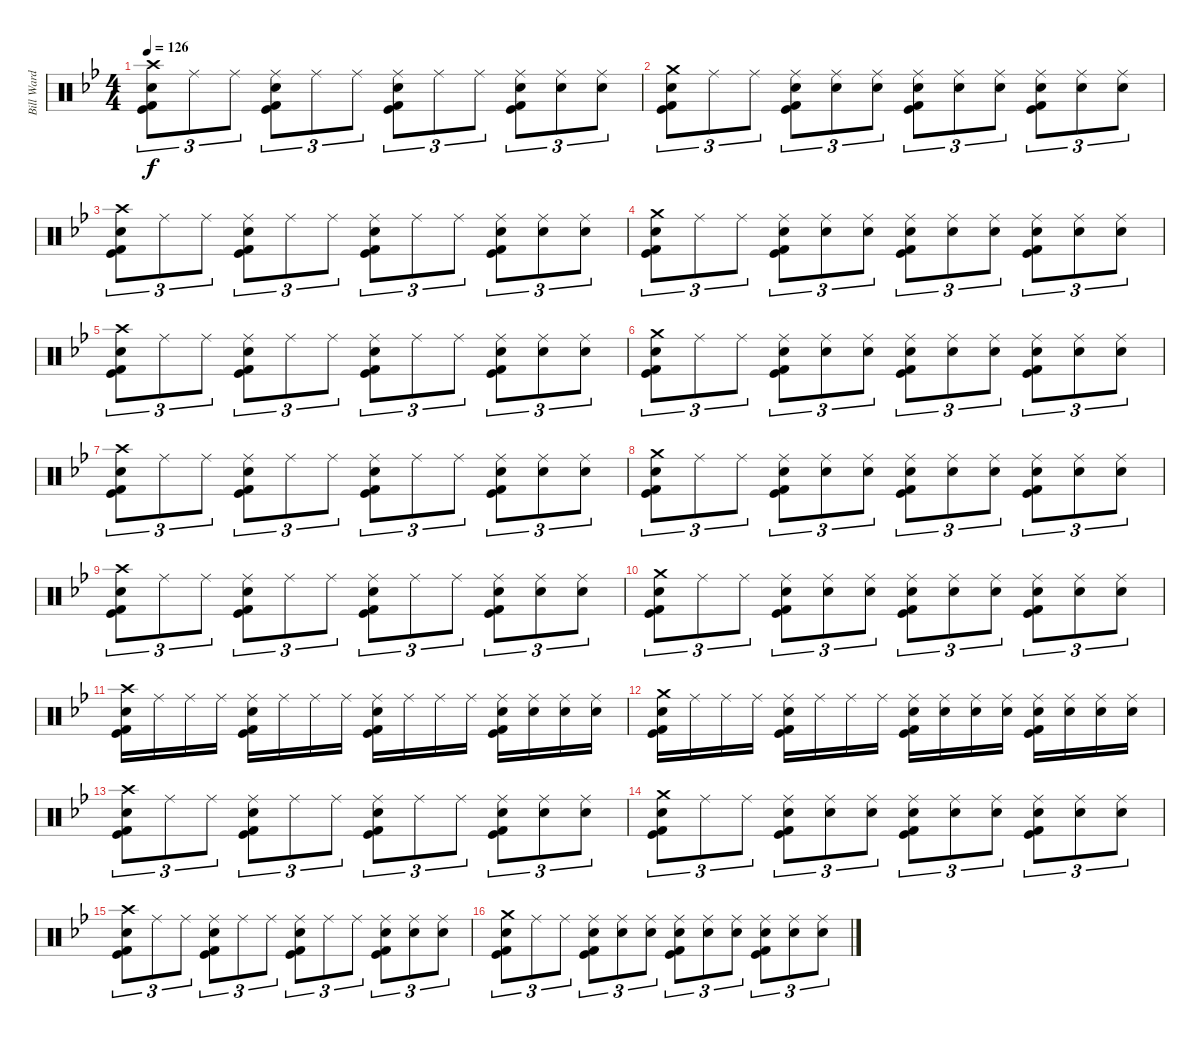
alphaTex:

\track ("Bill Ward" "Bill Ward") {instrument percussion}
\staff {score}
\articulation defaults
\ts (4 4)
\tempo 126
\clef neutral
\ks bb
("Crash high (hit)" "Snare (hit) 2" "Kick (hit) 2" "Kick (hit)").8{tu (3 2) dy f} "Ride (middle)".8{tu (3 2)} "Ride (middle)".8{tu (3 2)} ("Ride (middle)" "Snare (hit) 2" "Kick (hit) 2" "Kick (hit)").8{tu (3 2)} "Ride (middle)".8{tu (3 2)} "Ride (middle)".8{tu (3 2)} ("Ride (middle)" "Snare (hit) 2" "Kick (hit) 2" "Kick (hit)").8{tu (3 2)} "Ride (middle)".8{tu (3 2)} "Ride (middle)".8{tu (3 2)} ("Ride (middle)" "Snare (hit) 2" "Kick (hit) 2" "Kick (hit)").8{tu (3 2)} ("Ride (middle)" "Snare (hit) 2").8{tu (3 2)} ("Ride (middle)" "Snare (hit) 2").8{tu (3 2)} |
("Crash medium (hit)" "Snare (hit) 2" "Kick (hit) 2" "Kick (hit)").8{tu (3 2)} "Ride (middle)".8{tu (3 2)} "Ride (middle)".8{tu (3 2)} ("Ride (middle)" "Snare (hit) 2" "Kick (hit) 2" "Kick (hit)").8{tu (3 2)} ("Ride (middle)" "Snare (hit) 2").8{tu (3 2)} ("Ride (middle)" "Snare (hit) 2").8{tu (3 2)} ("Ride (middle)" "Snare (hit) 2" "Kick (hit) 2" "Kick (hit)").8{tu (3 2)} ("Ride (middle)" "Snare (hit) 2").8{tu (3 2)} ("Ride (middle)" "Snare (hit) 2").8{tu (3 2)} ("Ride (middle)" "Snare (hit) 2" "Kick (hit) 2" "Kick (hit)").8{tu (3 2)} ("Ride (middle)" "Snare (hit) 2").8{tu (3 2)} ("Ride (middle)" "Snare (hit) 2").8{tu (3 2)} |
("Crash high (hit)" "Snare (hit) 2" "Kick (hit) 2" "Kick (hit)").8{tu (3 2)} "Ride (middle)".8{tu (3 2)} "Ride (middle)".8{tu (3 2)} ("Ride (middle)" "Snare (hit) 2" "Kick (hit) 2" "Kick (hit)").8{tu (3 2)} "Ride (middle)".8{tu (3 2)} "Ride (middle)".8{tu (3 2)} ("Ride (middle)" "Snare (hit) 2" "Kick (hit) 2" "Kick (hit)").8{tu (3 2)} "Ride (middle)".8{tu (3 2)} "Ride (middle)".8{tu (3 2)} ("Ride (middle)" "Snare (hit) 2" "Kick (hit) 2" "Kick (hit)").8{tu (3 2)} ("Ride (middle)" "Snare (hit) 2").8{tu (3 2)} ("Ride (middle)" "Snare (hit) 2").8{tu (3 2)} |
("Crash medium (hit)" "Snare (hit) 2" "Kick (hit) 2" "Kick (hit)").8{tu (3 2)} "Ride (middle)".8{tu (3 2)} "Ride (middle)".8{tu (3 2)} ("Ride (middle)" "Snare (hit) 2" "Kick (hit) 2" "Kick (hit)").8{tu (3 2)} ("Ride (middle)" "Snare (hit) 2").8{tu (3 2)} ("Ride (middle)" "Snare (hit) 2").8{tu (3 2)} ("Ride (middle)" "Snare (hit) 2" "Kick (hit) 2" "Kick (hit)").8{tu (3 2)} ("Ride (middle)" "Snare (hit) 2").8{tu (3 2)} ("Ride (middle)" "Snare (hit) 2").8{tu (3 2)} ("Ride (middle)" "Snare (hit) 2" "Kick (hit) 2" "Kick (hit)").8{tu (3 2)} ("Ride (middle)" "Snare (hit) 2").8{tu (3 2)} ("Ride (middle)" "Snare (hit) 2").8{tu (3 2)} |
("Crash high (hit)" "Snare (hit) 2" "Kick (hit) 2" "Kick (hit)").8{tu (3 2)} "Ride (middle)".8{tu (3 2)} "Ride (middle)".8{tu (3 2)} ("Ride (middle)" "Snare (hit) 2" "Kick (hit) 2" "Kick (hit)").8{tu (3 2)} "Ride (middle)".8{tu (3 2)} "Ride (middle)".8{tu (3 2)} ("Ride (middle)" "Snare (hit) 2" "Kick (hit) 2" "Kick (hit)").8{tu (3 2)} "Ride (middle)".8{tu (3 2)} "Ride (middle)".8{tu (3 2)} ("Ride (middle)" "Snare (hit) 2" "Kick (hit) 2" "Kick (hit)").8{tu (3 2)} ("Ride (middle)" "Snare (hit) 2").8{tu (3 2)} ("Ride (middle)" "Snare (hit) 2").8{tu (3 2)} |
("Crash medium (hit)" "Snare (hit) 2" "Kick (hit) 2" "Kick (hit)").8{tu (3 2)} "Ride (middle)".8{tu (3 2)} "Ride (middle)".8{tu (3 2)} ("Ride (middle)" "Snare (hit) 2" "Kick (hit) 2" "Kick (hit)").8{tu (3 2)} ("Ride (middle)" "Snare (hit) 2").8{tu (3 2)} ("Ride (middle)" "Snare (hit) 2").8{tu (3 2)} ("Ride (middle)" "Snare (hit) 2" "Kick (hit) 2" "Kick (hit)").8{tu (3 2)} ("Ride (middle)" "Snare (hit) 2").8{tu (3 2)} ("Ride (middle)" "Snare (hit) 2").8{tu (3 2)} ("Ride (middle)" "Snare (hit) 2" "Kick (hit) 2" "Kick (hit)").8{tu (3 2)} ("Ride (middle)" "Snare (hit) 2").8{tu (3 2)} ("Ride (middle)" "Snare (hit) 2").8{tu (3 2)} |
("Crash high (hit)" "Snare (hit) 2" "Kick (hit) 2" "Kick (hit)").8{tu (3 2)} "Ride (middle)".8{tu (3 2)} "Ride (middle)".8{tu (3 2)} ("Ride (middle)" "Snare (hit) 2" "Kick (hit) 2" "Kick (hit)").8{tu (3 2)} "Ride (middle)".8{tu (3 2)} "Ride (middle)".8{tu (3 2)} ("Ride (middle)" "Snare (hit) 2" "Kick (hit) 2" "Kick (hit)").8{tu (3 2)} "Ride (middle)".8{tu (3 2)} "Ride (middle)".8{tu (3 2)} ("Ride (middle)" "Snare (hit) 2" "Kick (hit) 2" "Kick (hit)").8{tu (3 2)} ("Ride (middle)" "Snare (hit) 2").8{tu (3 2)} ("Ride (middle)" "Snare (hit) 2").8{tu (3 2)} |
("Crash medium (hit)" "Snare (hit) 2" "Kick (hit) 2" "Kick (hit)").8{tu (3 2)} "Ride (middle)".8{tu (3 2)} "Ride (middle)".8{tu (3 2)} ("Ride (middle)" "Snare (hit) 2" "Kick (hit) 2" "Kick (hit)").8{tu (3 2)} ("Ride (middle)" "Snare (hit) 2").8{tu (3 2)} ("Ride (middle)" "Snare (hit) 2").8{tu (3 2)} ("Ride (middle)" "Snare (hit) 2" "Kick (hit) 2" "Kick (hit)").8{tu (3 2)} ("Ride (middle)" "Snare (hit) 2").8{tu (3 2)} ("Ride (middle)" "Snare (hit) 2").8{tu (3 2)} ("Ride (middle)" "Snare (hit) 2" "Kick (hit) 2" "Kick (hit)").8{tu (3 2)} ("Ride (middle)" "Snare (hit) 2").8{tu (3 2)} ("Ride (middle)" "Snare (hit) 2").8{tu (3 2)} |
("Crash high (hit)" "Snare (hit) 2" "Kick (hit) 2" "Kick (hit)").8{tu (3 2)} "Ride (middle)".8{tu (3 2)} "Ride (middle)".8{tu (3 2)} ("Ride (middle)" "Snare (hit) 2" "Kick (hit) 2" "Kick (hit)").8{tu (3 2)} "Ride (middle)".8{tu (3 2)} "Ride (middle)".8{tu (3 2)} ("Ride (middle)" "Snare (hit) 2" "Kick (hit) 2" "Kick (hit)").8{tu (3 2)} "Ride (middle)".8{tu (3 2)} "Ride (middle)".8{tu (3 2)} ("Ride (middle)" "Snare (hit) 2" "Kick (hit) 2" "Kick (hit)").8{tu (3 2)} ("Ride (middle)" "Snare (hit) 2").8{tu (3 2)} ("Ride (middle)" "Snare (hit) 2").8{tu (3 2)} |
("Crash medium (hit)" "Snare (hit) 2" "Kick (hit) 2" "Kick (hit)").8{tu (3 2)} "Ride (middle)".8{tu (3 2)} "Ride (middle)".8{tu (3 2)} ("Ride (middle)" "Snare (hit) 2" "Kick (hit) 2" "Kick (hit)").8{tu (3 2)} ("Ride (middle)" "Snare (hit) 2").8{tu (3 2)} ("Ride (middle)" "Snare (hit) 2").8{tu (3 2)} ("Ride (middle)" "Snare (hit) 2" "Kick (hit) 2" "Kick (hit)").8{tu (3 2)} ("Ride (middle)" "Snare (hit) 2").8{tu (3 2)} ("Ride (middle)" "Snare (hit) 2").8{tu (3 2)} ("Ride (middle)" "Snare (hit) 2" "Kick (hit) 2" "Kick (hit)").8{tu (3 2)} ("Ride (middle)" "Snare (hit) 2").8{tu (3 2)} ("Ride (middle)" "Snare (hit) 2").8{tu (3 2)} |
("Crash high (hit)" "Snare (hit) 2" "Kick (hit) 2" "Kick (hit)").16 "Ride (middle)".16 "Ride (middle)".16 "Ride (middle)".16 ("Ride (middle)" "Snare (hit) 2" "Kick (hit) 2" "Kick (hit)").16 "Ride (middle)".16 "Ride (middle)".16 "Ride (middle)".16 ("Ride (middle)" "Snare (hit) 2" "Kick (hit) 2" "Kick (hit)").16 "Ride (middle)".16 "Ride (middle)".16 "Ride (middle)".16 ("Ride (middle)" "Snare (hit) 2" "Kick (hit) 2" "Kick (hit)").16 ("Ride (middle)" "Snare (hit) 2").16 ("Ride (middle)" "Snare (hit) 2").16 ("Ride (middle)" "Snare (hit) 2").16 |
("Crash medium (hit)" "Snare (hit) 2" "Kick (hit) 2" "Kick (hit)").16 "Ride (middle)".16 "Ride (middle)".16 "Ride (middle)".16 ("Ride (middle)" "Snare (hit) 2" "Kick (hit) 2" "Kick (hit)").16 "Ride (middle)".16 "Ride (middle)".16 "Ride (middle)".16 ("Ride (middle)" "Snare (hit) 2" "Kick (hit) 2" "Kick (hit)").16 ("Ride (middle)" "Snare (hit) 2").16 ("Ride (middle)" "Snare (hit) 2").16 ("Ride (middle)" "Snare (hit) 2").16 ("Ride (middle)" "Snare (hit) 2" "Kick (hit) 2" "Kick (hit)").16 ("Ride (middle)" "Snare (hit) 2").16 ("Ride (middle)" "Snare (hit) 2").16 ("Ride (middle)" "Snare (hit) 2").16 |
("Crash high (hit)" "Snare (hit) 2" "Kick (hit) 2" "Kick (hit)").8{tu (3 2)} "Ride (middle)".8{tu (3 2)} "Ride (middle)".8{tu (3 2)} ("Ride (middle)" "Snare (hit) 2" "Kick (hit) 2" "Kick (hit)").8{tu (3 2)} "Ride (middle)".8{tu (3 2)} "Ride (middle)".8{tu (3 2)} ("Ride (middle)" "Snare (hit) 2" "Kick (hit) 2" "Kick (hit)").8{tu (3 2)} "Ride (middle)".8{tu (3 2)} "Ride (middle)".8{tu (3 2)} ("Ride (middle)" "Snare (hit) 2" "Kick (hit) 2" "Kick (hit)").8{tu (3 2)} ("Ride (middle)" "Snare (hit) 2").8{tu (3 2)} ("Ride (middle)" "Snare (hit) 2").8{tu (3 2)} |
("Crash medium (hit)" "Snare (hit) 2" "Kick (hit) 2" "Kick (hit)").8{tu (3 2)} "Ride (middle)".8{tu (3 2)} "Ride (middle)".8{tu (3 2)} ("Ride (middle)" "Snare (hit) 2" "Kick (hit) 2" "Kick (hit)").8{tu (3 2)} ("Ride (middle)" "Snare (hit) 2").8{tu (3 2)} ("Ride (middle)" "Snare (hit) 2").8{tu (3 2)} ("Ride (middle)" "Snare (hit) 2" "Kick (hit) 2" "Kick (hit)").8{tu (3 2)} ("Ride (middle)" "Snare (hit) 2").8{tu (3 2)} ("Ride (middle)" "Snare (hit) 2").8{tu (3 2)} ("Ride (middle)" "Snare (hit) 2" "Kick (hit) 2" "Kick (hit)").8{tu (3 2)} ("Ride (middle)" "Snare (hit) 2").8{tu (3 2)} ("Ride (middle)" "Snare (hit) 2").8{tu (3 2)} |
("Crash high (hit)" "Snare (hit) 2" "Kick (hit) 2" "Kick (hit)").8{tu (3 2)} "Ride (middle)".8{tu (3 2)} "Ride (middle)".8{tu (3 2)} ("Ride (middle)" "Snare (hit) 2" "Kick (hit) 2" "Kick (hit)").8{tu (3 2)} "Ride (middle)".8{tu (3 2)} "Ride (middle)".8{tu (3 2)} ("Ride (middle)" "Snare (hit) 2" "Kick (hit) 2" "Kick (hit)").8{tu (3 2)} "Ride (middle)".8{tu (3 2)} "Ride (middle)".8{tu (3 2)} ("Ride (middle)" "Snare (hit) 2" "Kick (hit) 2" "Kick (hit)").8{tu (3 2)} ("Ride (middle)" "Snare (hit) 2").8{tu (3 2)} ("Ride (middle)" "Snare (hit) 2").8{tu (3 2)} |
("Crash medium (hit)" "Snare (hit) 2" "Kick (hit) 2" "Kick (hit)").8{tu (3 2)} "Ride (middle)".8{tu (3 2)} "Ride (middle)".8{tu (3 2)} ("Ride (middle)" "Snare (hit) 2" "Kick (hit) 2" "Kick (hit)").8{tu (3 2)} ("Ride (middle)" "Snare (hit) 2").8{tu (3 2)} ("Ride (middle)" "Snare (hit) 2").8{tu (3 2)} ("Ride (middle)" "Snare (hit) 2" "Kick (hit) 2" "Kick (hit)").8{tu (3 2)} ("Ride (middle)" "Snare (hit) 2").8{tu (3 2)} ("Ride (middle)" "Snare (hit) 2").8{tu (3 2)} ("Ride (middle)" "Snare (hit) 2" "Kick (hit) 2" "Kick (hit)").8{tu (3 2)} ("Ride (middle)" "Snare (hit) 2").8{tu (3 2)} ("Ride (middle)" "Snare (hit) 2").8{tu (3 2)}
